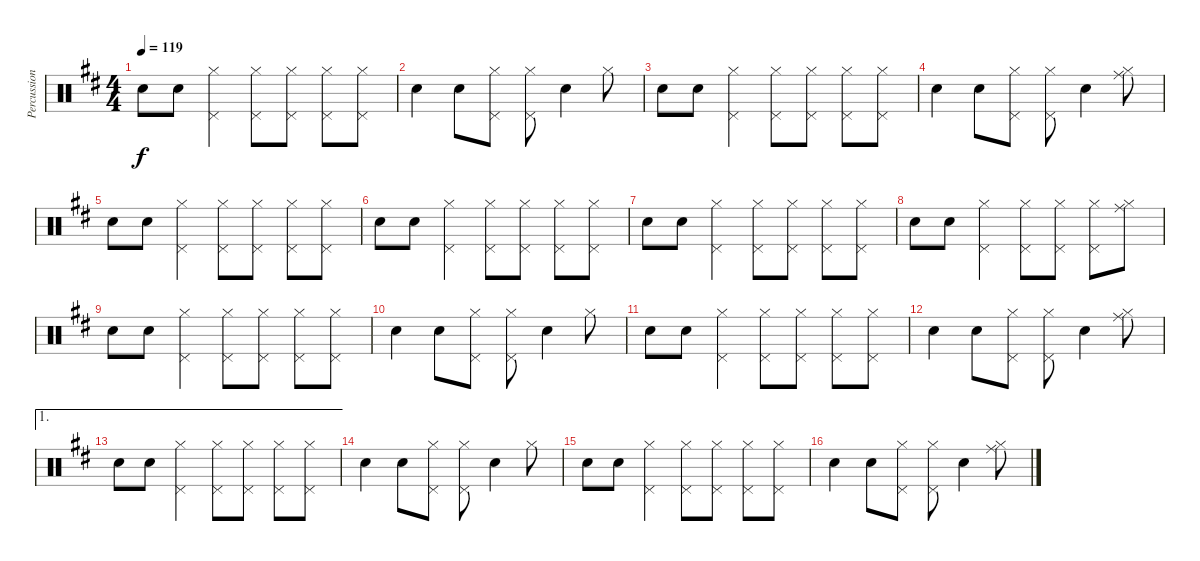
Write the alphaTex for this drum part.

\track ("Percussion" "Percussion") {instrument percussion}
\staff {score}
\articulation defaults
\ts (4 4)
\tempo 119
\clef neutral
\ks d "Electric Snare (hit)".8{dy f} "Electric Snare (hit)".8
("Pedal Hi-Hat (hit)" "Hi-Hat (closed)").4 ("Pedal Hi-Hat (hit)" "Hi-Hat (closed)").8 ("Pedal Hi-Hat (hit)" "Hi-Hat (closed)").8 ("Pedal Hi-Hat (hit)" "Hi-Hat (closed)").8 ("Pedal Hi-Hat (hit)" "Hi-Hat (closed)").8 |
"Electric Snare (hit)".4 "Electric Snare (hit)".8 ("Pedal Hi-Hat (hit)" "Hi-Hat (closed)").8 ("Pedal Hi-Hat (hit)" "Hi-Hat (closed)").8 "Electric Snare (hit)".4 "Hi-Hat (closed)".8 |
"Electric Snare (hit)".8 "Electric Snare (hit)".8 ("Pedal Hi-Hat (hit)" "Hi-Hat (closed)").4 ("Pedal Hi-Hat (hit)" "Hi-Hat (closed)").8 ("Pedal Hi-Hat (hit)" "Hi-Hat (closed)").8 ("Pedal Hi-Hat (hit)" "Hi-Hat (closed)").8 ("Pedal Hi-Hat (hit)" "Hi-Hat (closed)").8 |
"Electric Snare (hit)".4 "Electric Snare (hit)".8 ("Pedal Hi-Hat (hit)" "Hi-Hat (closed)").8 ("Pedal Hi-Hat (hit)" "Hi-Hat (closed)").8 "Electric Snare (hit)".4 ("Ride (middle)" "Hi-Hat (closed)").8 |
"Electric Snare (hit)".8 "Electric Snare (hit)".8 ("Pedal Hi-Hat (hit)" "Hi-Hat (closed)").4 ("Pedal Hi-Hat (hit)" "Hi-Hat (closed)").8 ("Pedal Hi-Hat (hit)" "Hi-Hat (closed)").8 ("Pedal Hi-Hat (hit)" "Hi-Hat (closed)").8 ("Pedal Hi-Hat (hit)" "Hi-Hat (closed)").8 |
"Electric Snare (hit)".8 "Electric Snare (hit)".8 ("Pedal Hi-Hat (hit)" "Hi-Hat (closed)").4 ("Pedal Hi-Hat (hit)" "Hi-Hat (closed)").8 ("Pedal Hi-Hat (hit)" "Hi-Hat (closed)").8 ("Pedal Hi-Hat (hit)" "Hi-Hat (closed)").8 ("Pedal Hi-Hat (hit)" "Hi-Hat (closed)").8 |
"Electric Snare (hit)".8 "Electric Snare (hit)".8 ("Pedal Hi-Hat (hit)" "Hi-Hat (closed)").4 ("Pedal Hi-Hat (hit)" "Hi-Hat (closed)").8 ("Pedal Hi-Hat (hit)" "Hi-Hat (closed)").8 ("Pedal Hi-Hat (hit)" "Hi-Hat (closed)").8 ("Pedal Hi-Hat (hit)" "Hi-Hat (closed)").8 |
"Electric Snare (hit)".8 "Electric Snare (hit)".8 ("Pedal Hi-Hat (hit)" "Hi-Hat (closed)").4 ("Pedal Hi-Hat (hit)" "Hi-Hat (closed)").8 ("Pedal Hi-Hat (hit)" "Hi-Hat (closed)").8 ("Pedal Hi-Hat (hit)" "Hi-Hat (closed)").8 ("Ride (middle)" "Hi-Hat (closed)").8 |
"Electric Snare (hit)".8 "Electric Snare (hit)".8 ("Pedal Hi-Hat (hit)" "Hi-Hat (closed)").4 ("Pedal Hi-Hat (hit)" "Hi-Hat (closed)").8 ("Pedal Hi-Hat (hit)" "Hi-Hat (closed)").8 ("Pedal Hi-Hat (hit)" "Hi-Hat (closed)").8 ("Pedal Hi-Hat (hit)" "Hi-Hat (closed)").8 |
"Electric Snare (hit)".4 "Electric Snare (hit)".8 ("Pedal Hi-Hat (hit)" "Hi-Hat (closed)").8 ("Pedal Hi-Hat (hit)" "Hi-Hat (closed)").8 "Electric Snare (hit)".4 "Hi-Hat (closed)".8 |
"Electric Snare (hit)".8 "Electric Snare (hit)".8 ("Pedal Hi-Hat (hit)" "Hi-Hat (closed)").4 ("Pedal Hi-Hat (hit)" "Hi-Hat (closed)").8 ("Pedal Hi-Hat (hit)" "Hi-Hat (closed)").8 ("Pedal Hi-Hat (hit)" "Hi-Hat (closed)").8 ("Pedal Hi-Hat (hit)" "Hi-Hat (closed)").8 |
"Electric Snare (hit)".4 "Electric Snare (hit)".8 ("Pedal Hi-Hat (hit)" "Hi-Hat (closed)").8 ("Pedal Hi-Hat (hit)" "Hi-Hat (closed)").8 "Electric Snare (hit)".4 ("Ride (middle)" "Hi-Hat (closed)").8 |
\ae 1 "Electric Snare (hit)".8{volume 10} "Electric Snare (hit)".8
("Pedal Hi-Hat (hit)" "Hi-Hat (closed)").4 ("Pedal Hi-Hat (hit)" "Hi-Hat (closed)").8 ("Pedal Hi-Hat (hit)" "Hi-Hat (closed)").8 ("Pedal Hi-Hat (hit)" "Hi-Hat (closed)").8 ("Pedal Hi-Hat (hit)" "Hi-Hat (closed)").8 |
"Electric Snare (hit)".4 "Electric Snare (hit)".8 ("Pedal Hi-Hat (hit)" "Hi-Hat (closed)").8 ("Pedal Hi-Hat (hit)" "Hi-Hat (closed)").8 "Electric Snare (hit)".4 "Hi-Hat (closed)".8 |
"Electric Snare (hit)".8 "Electric Snare (hit)".8 ("Pedal Hi-Hat (hit)" "Hi-Hat (closed)").4 ("Pedal Hi-Hat (hit)" "Hi-Hat (closed)").8 ("Pedal Hi-Hat (hit)" "Hi-Hat (closed)").8 ("Pedal Hi-Hat (hit)" "Hi-Hat (closed)").8 ("Pedal Hi-Hat (hit)" "Hi-Hat (closed)").8 |
"Electric Snare (hit)".4 "Electric Snare (hit)".8 ("Pedal Hi-Hat (hit)" "Hi-Hat (closed)").8 ("Pedal Hi-Hat (hit)" "Hi-Hat (closed)").8 "Electric Snare (hit)".4 ("Ride (middle)" "Hi-Hat (closed)").8
